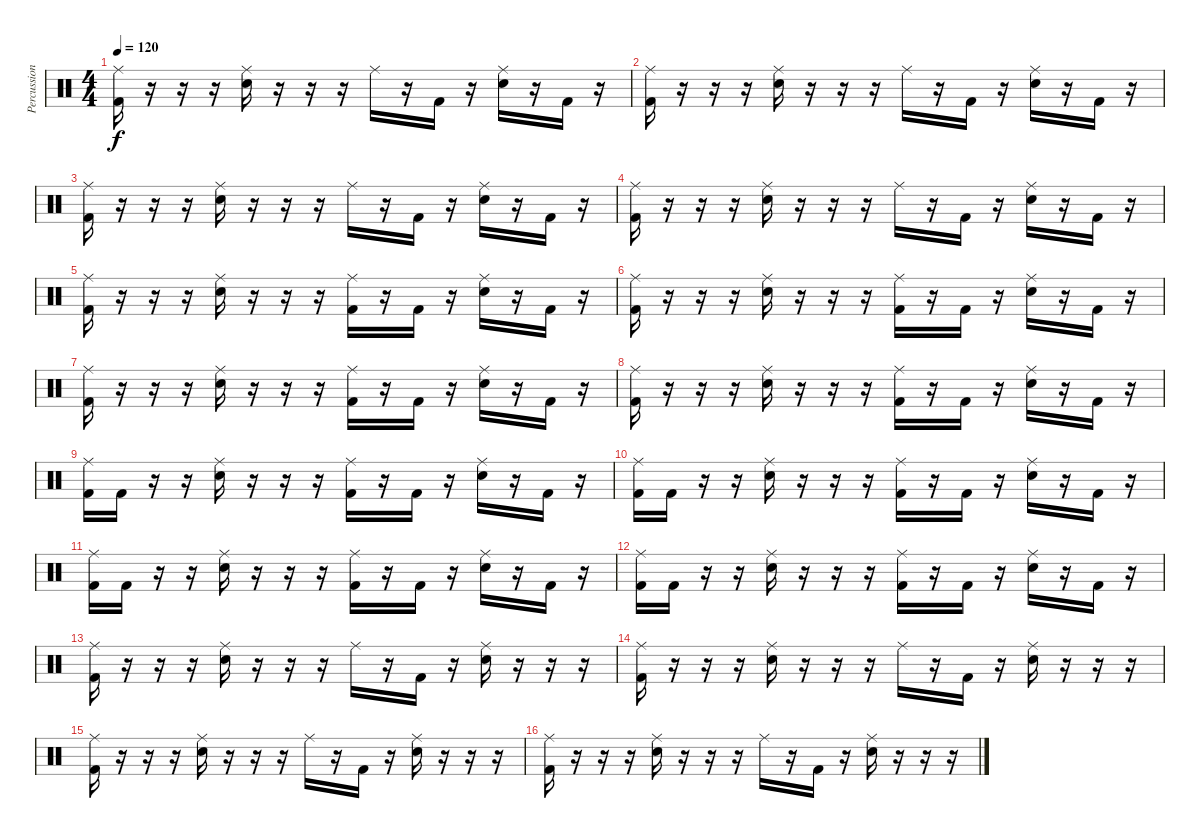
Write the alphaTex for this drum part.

\track ("Percussion" "Percussion") {instrument percussion}
\staff {score}
\articulation defaults
\ts (4 4)
\tempo 120
\clef neutral
\ks c
("Ride (middle)" "Kick (hit) 2").16{dy f} r.16 r.16 r.16 ("Ride (middle)" "Electric Snare (hit)").16 r.16 r.16 r.16 "Ride (middle)".16 r.16 "Kick (hit) 2".16 r.16 ("Ride (middle)" "Electric Snare (hit)").16 r.16 "Kick (hit) 2".16 r.16 |
("Ride (middle)" "Kick (hit) 2").16 r.16 r.16 r.16 ("Ride (middle)" "Electric Snare (hit)").16 r.16 r.16 r.16 "Ride (middle)".16 r.16 "Kick (hit) 2".16 r.16 ("Ride (middle)" "Electric Snare (hit)").16 r.16 "Kick (hit) 2".16 r.16 |
("Ride (middle)" "Kick (hit) 2").16 r.16 r.16 r.16 ("Ride (middle)" "Electric Snare (hit)").16 r.16 r.16 r.16 "Ride (middle)".16 r.16 "Kick (hit) 2".16 r.16 ("Ride (middle)" "Electric Snare (hit)").16 r.16 "Kick (hit) 2".16 r.16 |
("Ride (middle)" "Kick (hit) 2").16 r.16 r.16 r.16 ("Ride (middle)" "Electric Snare (hit)").16 r.16 r.16 r.16 "Ride (middle)".16 r.16 "Kick (hit) 2".16 r.16 ("Ride (middle)" "Electric Snare (hit)").16 r.16 "Kick (hit) 2".16 r.16 |
("Ride (middle)" "Kick (hit) 2").16 r.16 r.16 r.16 ("Ride (middle)" "Electric Snare (hit)").16 r.16 r.16 r.16 ("Ride (middle)" "Kick (hit) 2").16 r.16 "Kick (hit) 2".16 r.16 ("Ride (middle)" "Electric Snare (hit)").16 r.16 "Kick (hit) 2".16 r.16 |
("Ride (middle)" "Kick (hit) 2").16 r.16 r.16 r.16 ("Ride (middle)" "Electric Snare (hit)").16 r.16 r.16 r.16 ("Ride (middle)" "Kick (hit) 2").16 r.16 "Kick (hit) 2".16 r.16 ("Ride (middle)" "Electric Snare (hit)").16 r.16 "Kick (hit) 2".16 r.16 |
("Ride (middle)" "Kick (hit) 2").16 r.16 r.16 r.16 ("Ride (middle)" "Electric Snare (hit)").16 r.16 r.16 r.16 ("Ride (middle)" "Kick (hit) 2").16 r.16 "Kick (hit) 2".16 r.16 ("Ride (middle)" "Electric Snare (hit)").16 r.16 "Kick (hit) 2".16 r.16 |
("Ride (middle)" "Kick (hit) 2").16 r.16 r.16 r.16 ("Ride (middle)" "Electric Snare (hit)").16 r.16 r.16 r.16 ("Ride (middle)" "Kick (hit) 2").16 r.16 "Kick (hit) 2".16 r.16 ("Ride (middle)" "Electric Snare (hit)").16 r.16 "Kick (hit) 2".16 r.16 |
("Ride (middle)" "Kick (hit) 2").16 "Kick (hit) 2".16 r.16 r.16 ("Ride (middle)" "Electric Snare (hit)").16 r.16 r.16 r.16 ("Ride (middle)" "Kick (hit) 2").16 r.16 "Kick (hit) 2".16 r.16 ("Ride (middle)" "Electric Snare (hit)").16 r.16 "Kick (hit) 2".16 r.16 |
("Ride (middle)" "Kick (hit) 2").16 "Kick (hit) 2".16 r.16 r.16 ("Ride (middle)" "Electric Snare (hit)").16 r.16 r.16 r.16 ("Ride (middle)" "Kick (hit) 2").16 r.16 "Kick (hit) 2".16 r.16 ("Ride (middle)" "Electric Snare (hit)").16 r.16 "Kick (hit) 2".16 r.16 |
("Ride (middle)" "Kick (hit) 2").16 "Kick (hit) 2".16 r.16 r.16 ("Ride (middle)" "Electric Snare (hit)").16 r.16 r.16 r.16 ("Ride (middle)" "Kick (hit) 2").16 r.16 "Kick (hit) 2".16 r.16 ("Ride (middle)" "Electric Snare (hit)").16 r.16 "Kick (hit) 2".16 r.16 |
("Ride (middle)" "Kick (hit) 2").16 "Kick (hit) 2".16 r.16 r.16 ("Ride (middle)" "Electric Snare (hit)").16 r.16 r.16 r.16 ("Ride (middle)" "Kick (hit) 2").16 r.16 "Kick (hit) 2".16 r.16 ("Ride (middle)" "Electric Snare (hit)").16 r.16 "Kick (hit) 2".16 r.16 |
("Ride (middle)" "Kick (hit) 2").16 r.16 r.16 r.16 ("Ride (middle)" "Electric Snare (hit)").16 r.16 r.16 r.16 "Ride (middle)".16 r.16 "Kick (hit) 2".16 r.16 ("Ride (middle)" "Electric Snare (hit)").16 r.16 r.16 r.16 |
("Ride (middle)" "Kick (hit) 2").16 r.16 r.16 r.16 ("Ride (middle)" "Electric Snare (hit)").16 r.16 r.16 r.16 "Ride (middle)".16 r.16 "Kick (hit) 2".16 r.16 ("Ride (middle)" "Electric Snare (hit)").16 r.16 r.16 r.16 |
("Ride (middle)" "Kick (hit) 2").16 r.16 r.16 r.16 ("Ride (middle)" "Electric Snare (hit)").16 r.16 r.16 r.16 "Ride (middle)".16 r.16 "Kick (hit) 2".16 r.16 ("Ride (middle)" "Electric Snare (hit)").16 r.16 r.16 r.16 |
("Ride (middle)" "Kick (hit) 2").16 r.16 r.16 r.16 ("Ride (middle)" "Electric Snare (hit)").16 r.16 r.16 r.16 "Ride (middle)".16 r.16 "Kick (hit) 2".16 r.16 ("Ride (middle)" "Electric Snare (hit)").16 r.16 r.16 r.16
